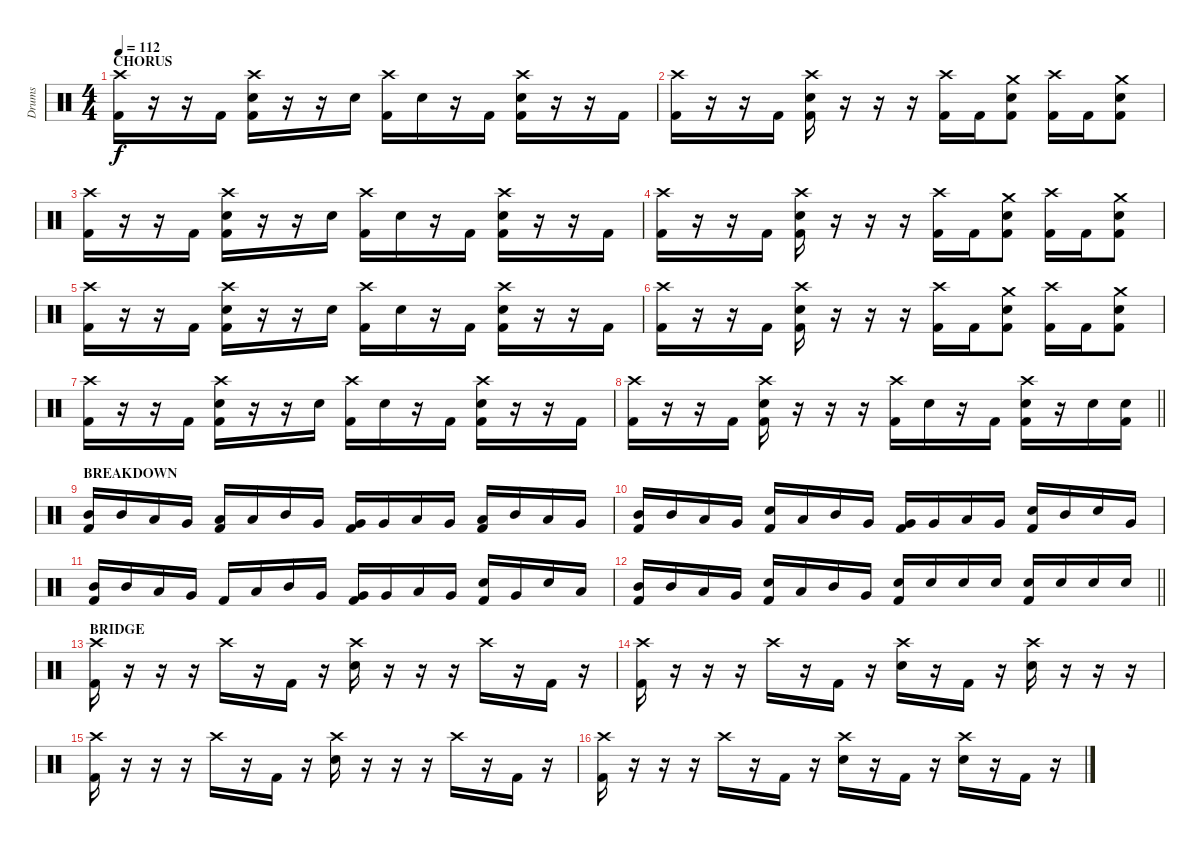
\track ("Drums" "Drums") {instrument percussion}
\staff
\articulation defaults
\ts (4 4)
\section ("" "CHORUS")
\tempo 112
\clef neutral
\ks c
("Crash high (hit)" "Kick (hit) 2").16{dy f} r.16 r.16 "Kick (hit) 2".16 ("Crash high (hit)" "Snare (hit) 2" "Kick (hit) 2").16 r.16 r.16 "Snare (hit) 2".16 ("Crash high (hit)" "Kick (hit) 2").16 "Snare (hit) 2".16 r.16 "Kick (hit) 2".16 ("Crash high (hit)" "Snare (hit) 2" "Kick (hit) 2").16 r.16 r.16 "Kick (hit) 2".16 |
("Crash high (hit)" "Kick (hit) 2").16 r.16 r.16 "Kick (hit) 2".16 ("Crash high (hit)" "Snare (hit) 2" "Kick (hit) 2").16 r.16 r.16 r.16 ("Crash high (hit)" "Kick (hit) 2").16 "Kick (hit) 2".16 ("Crash medium (hit)" "Snare (hit) 2" "Kick (hit) 2").8 ("Crash high (hit)" "Kick (hit) 2").16 "Kick (hit) 2".16 ("Crash medium (hit)" "Snare (hit) 2" "Kick (hit) 2").8 |
("Crash high (hit)" "Kick (hit) 2").16 r.16 r.16 "Kick (hit) 2".16 ("Crash high (hit)" "Snare (hit) 2" "Kick (hit) 2").16 r.16 r.16 "Snare (hit) 2".16 ("Crash high (hit)" "Kick (hit) 2").16 "Snare (hit) 2".16 r.16 "Kick (hit) 2".16 ("Crash high (hit)" "Snare (hit) 2" "Kick (hit) 2").16 r.16 r.16 "Kick (hit) 2".16 |
("Crash high (hit)" "Kick (hit) 2").16 r.16 r.16 "Kick (hit) 2".16 ("Crash high (hit)" "Snare (hit) 2" "Kick (hit) 2").16 r.16 r.16 r.16 ("Crash high (hit)" "Kick (hit) 2").16 "Kick (hit) 2".16 ("Crash medium (hit)" "Snare (hit) 2" "Kick (hit) 2").8 ("Crash high (hit)" "Kick (hit) 2").16 "Kick (hit) 2".16 ("Crash medium (hit)" "Snare (hit) 2" "Kick (hit) 2").8 |
("Crash high (hit)" "Kick (hit) 2").16 r.16 r.16 "Kick (hit) 2".16 ("Crash high (hit)" "Snare (hit) 2" "Kick (hit) 2").16 r.16 r.16 "Snare (hit) 2".16 ("Crash high (hit)" "Kick (hit) 2").16 "Snare (hit) 2".16 r.16 "Kick (hit) 2".16 ("Crash high (hit)" "Snare (hit) 2" "Kick (hit) 2").16 r.16 r.16 "Kick (hit) 2".16 |
("Crash high (hit)" "Kick (hit) 2").16 r.16 r.16 "Kick (hit) 2".16 ("Crash high (hit)" "Snare (hit) 2" "Kick (hit) 2").16 r.16 r.16 r.16 ("Crash high (hit)" "Kick (hit) 2").16 "Kick (hit) 2".16 ("Crash medium (hit)" "Snare (hit) 2" "Kick (hit) 2").8 ("Crash high (hit)" "Kick (hit) 2").16 "Kick (hit) 2".16 ("Crash medium (hit)" "Snare (hit) 2" "Kick (hit) 2").8 |
("Crash high (hit)" "Kick (hit) 2").16 r.16 r.16 "Kick (hit) 2".16 ("Crash high (hit)" "Snare (hit) 2" "Kick (hit) 2").16 r.16 r.16 "Snare (hit) 2".16 ("Crash high (hit)" "Kick (hit) 2").16 "Snare (hit) 2".16 r.16 "Kick (hit) 2".16 ("Crash high (hit)" "Snare (hit) 2" "Kick (hit) 2").16 r.16 r.16 "Kick (hit) 2".16 |
\barLineRight lightlight
("Crash high (hit)" "Kick (hit) 2").16 r.16 r.16 "Kick (hit) 2".16 ("Crash high (hit)" "Snare (hit) 2" "Kick (hit) 2").16 r.16 r.16 r.16 ("Crash high (hit)" "Kick (hit) 2").16 "Snare (hit) 2".16 r.16 "Kick (hit) 2".16 ("Crash high (hit)" "Snare (hit) 2" "Kick (hit) 2").16 r.16 "Snare (hit) 2".16 ("Snare (hit) 2" "Kick (hit) 2").16 |
\section ("" "BREAKDOWN")
("Mid Tom (hit)" "Kick (hit) 2").16 "Mid Tom (hit)".16 "Low Tom (hit)".16 "Very Low Tom (hit)".16 ("Low Tom (hit)" "Kick (hit) 2").16 "Low Tom (hit)".16 "Mid Tom (hit)".16 "Very Low Tom (hit)".16 ("Very Low Tom (hit)" "Kick (hit) 2").16 "Very Low Tom (hit)".16 "Low Tom (hit)".16 "Very Low Tom (hit)".16 ("Low Tom (hit)" "Kick (hit) 2").16 "Mid Tom (hit)".16 "Low Tom (hit)".16 "Very Low Tom (hit)".16 |
("Mid Tom (hit)" "Kick (hit) 2").16 "Mid Tom (hit)".16 "Low Tom (hit)".16 "Very Low Tom (hit)".16 ("Snare (hit) 2" "Kick (hit) 2").16 "Low Tom (hit)".16 "Mid Tom (hit)".16 "Very Low Tom (hit)".16 ("Very Low Tom (hit)" "Kick (hit) 2").16 "Very Low Tom (hit)".16 "Low Tom (hit)".16 "Very Low Tom (hit)".16 ("Snare (hit) 2" "Kick (hit) 2").16 "Mid Tom (hit)".16 "Snare (hit) 2".16 "Very Low Tom (hit)".16 |
("Mid Tom (hit)" "Kick (hit) 2").16 "Mid Tom (hit)".16 "Low Tom (hit)".16 "Very Low Tom (hit)".16 "Kick (hit) 2".16 "Low Tom (hit)".16 "Mid Tom (hit)".16 "Very Low Tom (hit)".16 ("Very Low Tom (hit)" "Kick (hit) 2").16 "Very Low Tom (hit)".16 "Low Tom (hit)".16 "Very Low Tom (hit)".16 ("Snare (hit) 2" "Kick (hit) 2").16 "Very Low Tom (hit)".16 "Snare (hit) 2".16 "Low Tom (hit)".16 |
\barLineRight lightlight
("Mid Tom (hit)" "Kick (hit) 2").16 "Mid Tom (hit)".16 "Low Tom (hit)".16 "Very Low Tom (hit)".16 ("Snare (hit) 2" "Kick (hit) 2").16 "Low Tom (hit)".16 "Mid Tom (hit)".16 "Very Low Tom (hit)".16 ("Snare (hit) 2" "Kick (hit) 2").16{volume 8} "Snare (hit) 2".16{volume 13} "Snare (hit) 2".16 "Snare (hit) 2".16 ("Snare (hit) 2" "Kick (hit) 2").16 "Snare (hit) 2".16 "Snare (hit) 2".16 "Snare (hit) 2".16 |
\section ("" "BRIDGE")
("Crash high (hit)" "Kick (hit) 2").16 r.16 r.16 r.16 "Crash high (hit)".16 r.16 "Kick (hit) 2".16 r.16 ("Crash high (hit)" "Snare (hit) 2").16 r.16 r.16 r.16 "Crash high (hit)".16 r.16 "Kick (hit) 2".16 r.16 |
("Crash high (hit)" "Kick (hit) 2").16 r.16 r.16 r.16 "Crash high (hit)".16 r.16 "Kick (hit) 2".16 r.16 ("Crash high (hit)" "Snare (hit) 2").16 r.16 "Kick (hit) 2".16 r.16 ("Crash high (hit)" "Snare (hit) 2").16 r.16 r.16 r.16 |
("Crash high (hit)" "Kick (hit) 2").16 r.16 r.16 r.16 "Crash high (hit)".16 r.16 "Kick (hit) 2".16 r.16 ("Crash high (hit)" "Snare (hit) 2").16 r.16 r.16 r.16 "Crash high (hit)".16 r.16 "Kick (hit) 2".16 r.16 |
("Crash high (hit)" "Kick (hit) 2").16 r.16 r.16 r.16 "Crash high (hit)".16 r.16 "Kick (hit) 2".16 r.16 ("Crash high (hit)" "Snare (hit) 2").16 r.16 "Kick (hit) 2".16 r.16 ("Crash high (hit)" "Snare (hit) 2").16 r.16 "Kick (hit) 2".16 r.16
